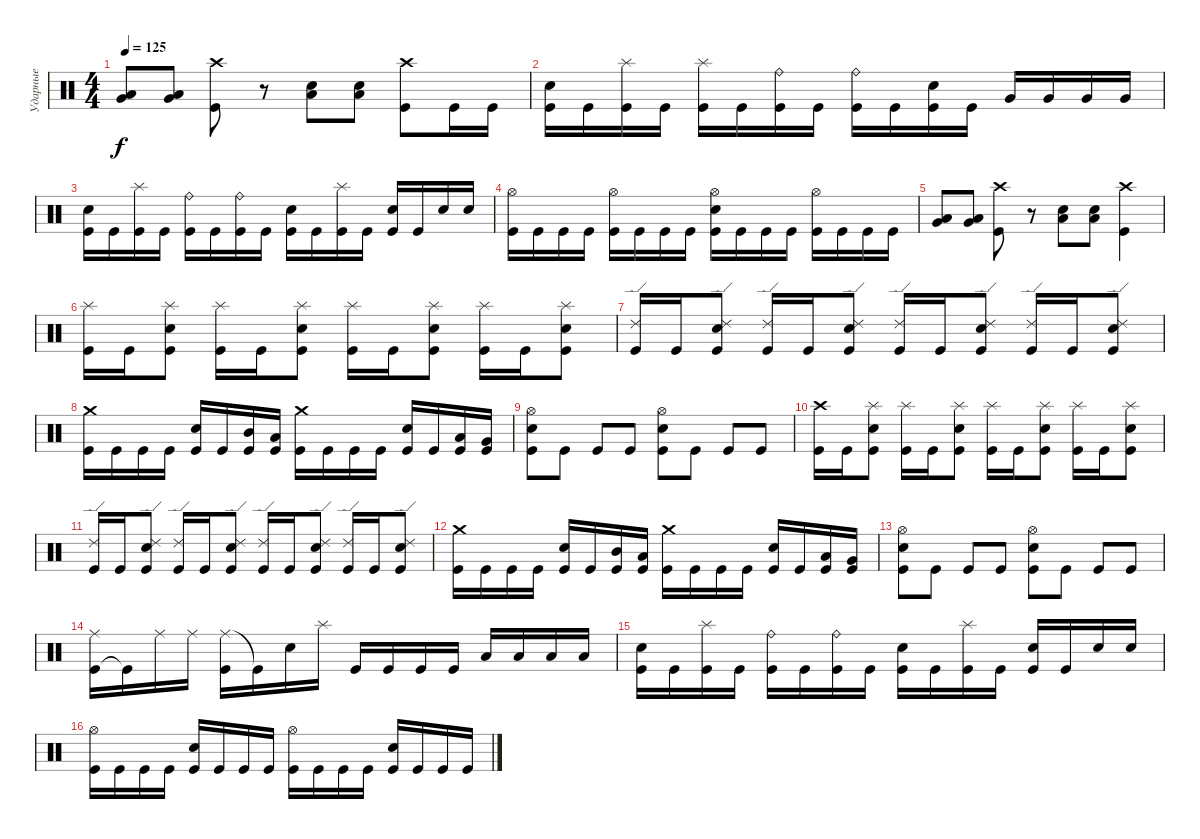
\track ("Ударные" "Ударные") {instrument percussion}
\staff {score}
\articulation defaults
\ts (4 4)
\tempo 125
\clef neutral
\ks c
("Low Tom (hit)" "Very Low Tom (hit)").8{dy f} ("Low Tom (hit)" "Very Low Tom (hit)").8 ("Crash high (hit)" "Kick (hit)").8 r.8 ("Electric Snare (hit)" "Low Floor Tom (hit)").8 ("Electric Snare (hit)" "Low Floor Tom (hit)").8 ("Crash high (hit)" "Kick (hit)").8 "Kick (hit)".16 "Kick (hit)".16 |
("Electric Snare (hit)" "Kick (hit)").16 "Kick (hit)".16 ("Splash (hit)" "Kick (hit)").16 "Kick (hit)".16 ("Splash (hit)" "Kick (hit)").16 "Kick (hit)".16 ("Ride (bell)" "Kick (hit)").16 "Kick (hit)".16 ("Ride (bell)" "Kick (hit)").16 "Kick (hit)".16 ("Electric Snare (hit)" "Kick (hit)").16 "Kick (hit)".16 "Very Low Tom (hit)".16 "Very Low Tom (hit)".16 "Very Low Tom (hit)".16 "Very Low Tom (hit)".16 |
("Electric Snare (hit)" "Kick (hit)").16 "Kick (hit)".16 ("Splash (hit)" "Kick (hit)").16 "Kick (hit)".16 ("Ride (bell)" "Kick (hit)").16 "Kick (hit)".16 ("Ride (bell)" "Kick (hit)").16 "Kick (hit)".16 ("Electric Snare (hit)" "Kick (hit)").16 "Kick (hit)".16 ("Splash (hit)" "Kick (hit)").16 "Kick (hit)".16 ("Electric Snare (hit)" "Kick (hit)").16 "Kick (hit)".16 "Electric Snare (hit)".16 "Electric Snare (hit)".16 |
("Hi-Hat (open)" "Kick (hit)").16 "Kick (hit)".16 "Kick (hit)".16 "Kick (hit)".16 ("Hi-Hat (open)" "Kick (hit)").16 "Kick (hit)".16 "Kick (hit)".16 "Kick (hit)".16 ("Hi-Hat (open)" "Electric Snare (hit)" "Kick (hit)").16 "Kick (hit)".16 "Kick (hit)".16 "Kick (hit)".16 ("Hi-Hat (open)" "Kick (hit)").16 "Kick (hit)".16 "Kick (hit)".16 "Kick (hit)".16 |
("Low Tom (hit)" "Very Low Tom (hit)").8 ("Low Tom (hit)" "Very Low Tom (hit)").8 ("Crash high (hit)" "Kick (hit)").8 r.8 ("Electric Snare (hit)" "Low Floor Tom (hit)").8 ("Electric Snare (hit)" "Low Floor Tom (hit)").8 ("Crash high (hit)" "Kick (hit)").4 |
("Splash (hit)" "Kick (hit)").16 "Kick (hit)".16 ("Splash (hit)" "Electric Snare (hit)" "Kick (hit)").8 ("Splash (hit)" "Kick (hit)").16 "Kick (hit)".16 ("Splash (hit)" "Electric Snare (hit)" "Kick (hit)").8 ("Splash (hit)" "Kick (hit)").16 "Kick (hit)".16 ("Splash (hit)" "Electric Snare (hit)" "Kick (hit)").8 ("Splash (hit)" "Kick (hit)").16 "Kick (hit)".16 ("Splash (hit)" "Electric Snare (hit)" "Kick (hit)").8 |
("Ride (edge) 2" "Kick (hit)").16 "Kick (hit)".16 ("Ride (edge) 2" "Electric Snare (hit)" "Kick (hit)").8 ("Ride (edge) 2" "Kick (hit)").16 "Kick (hit)".16 ("Ride (edge) 2" "Electric Snare (hit)" "Kick (hit)").8 ("Ride (edge) 2" "Kick (hit)").16 "Kick (hit)".16 ("Ride (edge) 2" "Electric Snare (hit)" "Kick (hit)").8 ("Ride (edge) 2" "Kick (hit)").16 "Kick (hit)".16 ("Ride (edge) 2" "Electric Snare (hit)" "Kick (hit)").8 |
("Crash medium (hit)" "Kick (hit)").16 "Kick (hit)".16 "Kick (hit)".16 "Kick (hit)".16 ("Electric Snare (hit)" "Kick (hit)").16 "Kick (hit)".16 ("Mid Tom (hit)" "Kick (hit)").16 ("Low Tom (hit)" "Kick (hit)").16 ("Crash medium (hit)" "Kick (hit)").16 "Kick (hit)".16 "Kick (hit)".16 "Kick (hit)".16 ("Electric Snare (hit)" "Kick (hit)").16 "Kick (hit)".16 ("Low Tom (hit)" "Kick (hit)").16 ("Very Low Tom (hit)" "Kick (hit)").16 |
("Hi-Hat (open)" "Electric Snare (hit)" "Kick (hit)").8 "Kick (hit)".8 "Kick (hit)".8 "Kick (hit)".8 ("Hi-Hat (open)" "Kick (hit)" "Electric Snare (hit)").8 "Kick (hit)".8 "Kick (hit)".8 "Kick (hit)".8 |
("Crash high (hit)" "Kick (hit)").16 "Kick (hit)".16 ("Splash (hit)" "Electric Snare (hit)" "Kick (hit)").8 ("Splash (hit)" "Kick (hit)").16 "Kick (hit)".16 ("Splash (hit)" "Electric Snare (hit)" "Kick (hit)").8 ("Splash (hit)" "Kick (hit)").16 "Kick (hit)".16 ("Splash (hit)" "Electric Snare (hit)" "Kick (hit)").8 ("Splash (hit)" "Kick (hit)").16 "Kick (hit)".16 ("Splash (hit)" "Electric Snare (hit)" "Kick (hit)").8 |
("Ride (edge) 2" "Kick (hit)").16 "Kick (hit)".16 ("Ride (edge) 2" "Electric Snare (hit)" "Kick (hit)").8 ("Ride (edge) 2" "Kick (hit)").16 "Kick (hit)".16 ("Ride (edge) 2" "Electric Snare (hit)" "Kick (hit)").8 ("Ride (edge) 2" "Kick (hit)").16 "Kick (hit)".16 ("Ride (edge) 2" "Electric Snare (hit)" "Kick (hit)").8 ("Ride (edge) 2" "Kick (hit)").16 "Kick (hit)".16 ("Ride (edge) 2" "Electric Snare (hit)" "Kick (hit)").8 |
("Crash medium (hit)" "Kick (hit)").16 "Kick (hit)".16 "Kick (hit)".16 "Kick (hit)".16 ("Electric Snare (hit)" "Kick (hit)").16 "Kick (hit)".16 ("Mid Tom (hit)" "Kick (hit)").16 ("Low Tom (hit)" "Kick (hit)").16 ("Crash medium (hit)" "Kick (hit)").16 "Kick (hit)".16 "Kick (hit)".16 "Kick (hit)".16 ("Electric Snare (hit)" "Kick (hit)").16 "Kick (hit)".16 ("Low Tom (hit)" "Kick (hit)").16 ("Very Low Tom (hit)" "Kick (hit)").16 |
("Hi-Hat (open)" "Electric Snare (hit)" "Kick (hit)").8 "Kick (hit)".8 "Kick (hit)".8 "Kick (hit)".8 ("Hi-Hat (open)" "Kick (hit)" "Electric Snare (hit)").8 "Kick (hit)".8 "Kick (hit)".8 "Kick (hit)".8 |
("Kick (hit)" "Ride (middle)").16 "Kick (hit)"{t}.16 "Ride (middle)".16 "Ride (middle)".16 ("Ride (middle)" "Kick (hit)").16 "Kick (hit)"{t}.16 "Electric Snare (hit)".16 "Splash (hit)".16 "Kick (hit)".16 "Kick (hit)".16 "Kick (hit)".16 "Kick (hit)".16 "Low Tom (hit)".16 "Low Tom (hit)".16 "Low Tom (hit)".16 "Low Tom (hit)".16 |
("Electric Snare (hit)" "Kick (hit)").16 "Kick (hit)".16 ("Splash (hit)" "Kick (hit)").16 "Kick (hit)".16 ("Ride (bell)" "Kick (hit)").16 "Kick (hit)".16 ("Ride (bell)" "Kick (hit)").16 "Kick (hit)".16 ("Electric Snare (hit)" "Kick (hit)").16 "Kick (hit)".16 ("Splash (hit)" "Kick (hit)").16 "Kick (hit)".16 ("Electric Snare (hit)" "Kick (hit)").16 "Kick (hit)".16 "Electric Snare (hit)".16 "Electric Snare (hit)".16 |
("Hi-Hat (open)" "Kick (hit)").16 "Kick (hit)".16 "Kick (hit)".16 "Kick (hit)".16 ("Electric Snare (hit)" "Kick (hit)").16 "Kick (hit)".16 "Kick (hit)".16 "Kick (hit)".16 ("Hi-Hat (open)" "Kick (hit)").16 "Kick (hit)".16 "Kick (hit)".16 "Kick (hit)".16 ("Electric Snare (hit)" "Kick (hit)").16 "Kick (hit)".16 "Kick (hit)".16 "Kick (hit)".16
